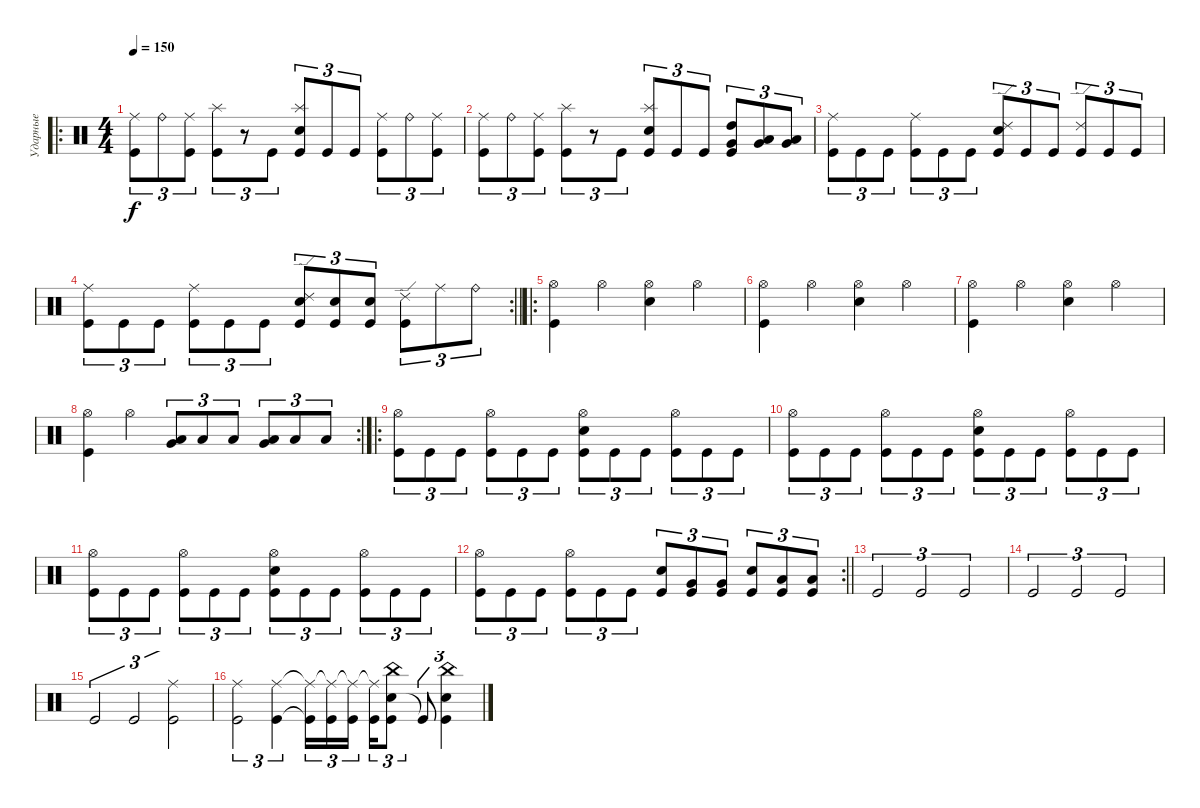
\track ("Ударные" "Ударные") {instrument percussion}
\staff {score}
\articulation defaults
\ro
\ts (4 4)
\tempo 150
\clef neutral
\ks c
("Kick (hit)" "Ride (middle)").8{tu (3 2) dy f} "Ride (bell)".8{tu (3 2)} ("Kick (hit)" "Ride (middle)").8{tu (3 2)} ("Kick (hit)" "Splash (hit)").8{tu (3 2)} r.8{tu (3 2)} "Kick (hit)".8{tu (3 2)} ("Electric Snare (hit)" "Kick (hit)" "Splash (hit)").8{tu (3 2)} "Kick (hit)".8{tu (3 2)} "Kick (hit)".8{tu (3 2)} ("Kick (hit)" "Ride (middle)").8{tu (3 2)} "Ride (bell)".8{tu (3 2)} ("Kick (hit)" "Ride (middle)").8{tu (3 2)} |
("Kick (hit)" "Ride (middle)").8{tu (3 2)} "Ride (bell)".8{tu (3 2)} ("Kick (hit)" "Ride (middle)").8{tu (3 2)} ("Kick (hit)" "Splash (hit)").8{tu (3 2)} r.8{tu (3 2)} "Kick (hit)".8{tu (3 2)} ("Electric Snare (hit)" "Kick (hit)" "Splash (hit)").8{tu (3 2)} "Kick (hit)".8{tu (3 2)} "Kick (hit)".8{tu (3 2)} ("Kick (hit)" "High Tom (hit)" "Very Low Tom (hit)").8{tu (3 2)} ("Low Tom (hit)" "Very Low Tom (hit)").8{tu (3 2)} ("Very Low Tom (hit)" "Low Floor Tom (hit)").8{tu (3 2)} |
("Ride (middle)" "Kick (hit)").8{tu (3 2)} "Kick (hit)".8{tu (3 2)} "Kick (hit)".8{tu (3 2)} ("Ride (middle)" "Kick (hit)").8{tu (3 2)} "Kick (hit)".8{tu (3 2)} "Kick (hit)".8{tu (3 2)} ("Ride (edge) 2" "Electric Snare (hit)" "Kick (hit)").8{tu (3 2)} "Kick (hit)".8{tu (3 2)} "Kick (hit)".8{tu (3 2)} ("Ride (edge) 2" "Kick (hit)").8{tu (3 2)} "Kick (hit)".8{tu (3 2)} "Kick (hit)".8{tu (3 2)} |
\rc 2
\barLineRight lightlight
("Ride (middle)" "Kick (hit)").8{tu (3 2)} "Kick (hit)".8{tu (3 2)} "Kick (hit)".8{tu (3 2)} ("Ride (middle)" "Kick (hit)").8{tu (3 2)} "Kick (hit)".8{tu (3 2)} "Kick (hit)".8{tu (3 2)} ("Ride (edge) 2" "Electric Snare (hit)" "Kick (hit)").8{tu (3 2)} ("Electric Snare (hit)" "Kick (hit)").8{tu (3 2)} ("Electric Snare (hit)" "Kick (hit)").8{tu (3 2)} ("Ride (edge) 2" "Kick (hit)").8{tu (3 2)} "Ride (middle)".8{tu (3 2)} "Ride (bell)".8{tu (3 2)} |
\ro
\section ("" " ")
("Kick (hit)" "Hi-Hat (open)").4 "Hi-Hat (open)".4 ("Electric Snare (hit)" "Hi-Hat (open)").4 "Hi-Hat (open)".4 |
("Kick (hit)" "Hi-Hat (open)").4 "Hi-Hat (open)".4 ("Electric Snare (hit)" "Hi-Hat (open)").4 "Hi-Hat (open)".4 |
("Kick (hit)" "Hi-Hat (open)").4 "Hi-Hat (open)".4 ("Electric Snare (hit)" "Hi-Hat (open)").4 "Hi-Hat (open)".4 |
\rc 2
("Kick (hit)" "Hi-Hat (open)").4 "Hi-Hat (open)".4 ("Very Low Tom (hit)" "Low Floor Tom (hit)").8{tu (3 2)} "Low Floor Tom (hit)".8{tu (3 2)} "Low Floor Tom (hit)".8{tu (3 2)} ("Very Low Tom (hit)" "Low Floor Tom (hit)").8{tu (3 2)} "Low Floor Tom (hit)".8{tu (3 2)} "Low Floor Tom (hit)".8{tu (3 2)} |
\ro
("Hi-Hat (open)" "Kick (hit)").8{tu (3 2)} "Kick (hit)".8{tu (3 2)} "Kick (hit)".8{tu (3 2)} ("Hi-Hat (open)" "Kick (hit)").8{tu (3 2)} "Kick (hit)".8{tu (3 2)} "Kick (hit)".8{tu (3 2)} ("Electric Snare (hit)" "Hi-Hat (open)" "Kick (hit)").8{tu (3 2)} "Kick (hit)".8{tu (3 2)} "Kick (hit)".8{tu (3 2)} ("Hi-Hat (open)" "Kick (hit)").8{tu (3 2)} "Kick (hit)".8{tu (3 2)} "Kick (hit)".8{tu (3 2)} |
("Hi-Hat (open)" "Kick (hit)").8{tu (3 2)} "Kick (hit)".8{tu (3 2)} "Kick (hit)".8{tu (3 2)} ("Hi-Hat (open)" "Kick (hit)").8{tu (3 2)} "Kick (hit)".8{tu (3 2)} "Kick (hit)".8{tu (3 2)} ("Electric Snare (hit)" "Hi-Hat (open)" "Kick (hit)").8{tu (3 2)} "Kick (hit)".8{tu (3 2)} "Kick (hit)".8{tu (3 2)} ("Hi-Hat (open)" "Kick (hit)").8{tu (3 2)} "Kick (hit)".8{tu (3 2)} "Kick (hit)".8{tu (3 2)} |
("Hi-Hat (open)" "Kick (hit)").8{tu (3 2)} "Kick (hit)".8{tu (3 2)} "Kick (hit)".8{tu (3 2)} ("Hi-Hat (open)" "Kick (hit)").8{tu (3 2)} "Kick (hit)".8{tu (3 2)} "Kick (hit)".8{tu (3 2)} ("Electric Snare (hit)" "Hi-Hat (open)" "Kick (hit)").8{tu (3 2)} "Kick (hit)".8{tu (3 2)} "Kick (hit)".8{tu (3 2)} ("Hi-Hat (open)" "Kick (hit)").8{tu (3 2)} "Kick (hit)".8{tu (3 2)} "Kick (hit)".8{tu (3 2)} |
\rc 2
\barLineRight lightlight
("Hi-Hat (open)" "Kick (hit)").8{tu (3 2)} "Kick (hit)".8{tu (3 2)} "Kick (hit)".8{tu (3 2)} ("Hi-Hat (open)" "Kick (hit)").8{tu (3 2)} "Kick (hit)".8{tu (3 2)} "Kick (hit)".8{tu (3 2)} ("Electric Snare (hit)" "Kick (hit)").8{tu (3 2)} ("Very Low Tom (hit)" "Kick (hit)").8{tu (3 2)} ("Very Low Tom (hit)" "Kick (hit)").8{tu (3 2)} ("Electric Snare (hit)" "Kick (hit)").8{tu (3 2)} ("Low Floor Tom (hit)" "Kick (hit)").8{tu (3 2)} ("Low Floor Tom (hit)" "Kick (hit)").8{tu (3 2)} |
\section ("" " ")
"Kick (hit)".2{tu (3 2)} "Kick (hit)".2{tu (3 2)} "Kick (hit)".2{tu (3 2)} |
"Kick (hit)".2{tu (3 2)} "Kick (hit)".2{tu (3 2)} "Kick (hit)".2{tu (3 2)} |
"Kick (hit)".2{tu (3 2)} "Kick (hit)".2{tu (3 2)} ("Ride (middle)" "Kick (hit)").2{tu (3 2)} |
("Ride (middle)" "Kick (hit)").2{tu (3 2)} ("Ride (middle)" "Kick (hit)").4{tu (3 2)} ("Ride (middle)"{t} "Kick (hit)"{t}).16{tu (3 2)} ("Ride (middle)"{t} "Kick (hit)").16{tu (3 2)} ("Ride (middle)"{t} "Kick (hit)").16{tu (3 2) beam splitsecondary} ("Ride (middle)"{t} "Kick (hit)").16{tu (3 2)} ("Electric Snare (hit)" "China (hit)" "Kick (hit)").8{tu (3 2)} "Kick (hit)"{t}.8{tu (3 2)} ("Electric Snare (hit)" "China (hit)" "Kick (hit)").4{tu (3 2)}
